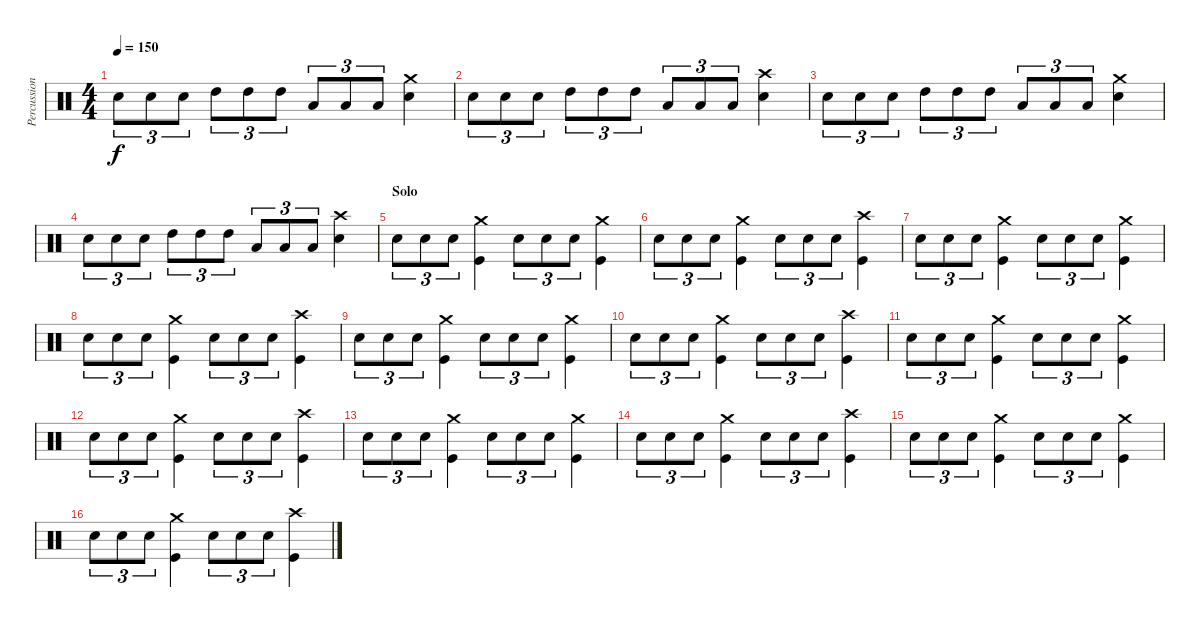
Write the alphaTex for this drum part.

\track ("Percussion" "Percussion") {instrument percussion}
\staff {score}
\articulation defaults
\ts (4 4)
\tempo 150
\clef neutral
\ks c "Snare (hit) 2".8{tu (3 2) dy f} "Snare (hit) 2".8{tu (3 2)} "Snare (hit) 2".8{tu (3 2)} "High Tom (hit)".8{tu (3 2)} "High Tom (hit)".8{tu (3 2)} "High Tom (hit)".8{tu (3 2)} "Low Floor Tom (hit)".8{tu (3 2)} "Low Floor Tom (hit)".8{tu (3 2)} "Low Floor Tom (hit)".8{tu (3 2)}
("Crash medium (hit)" "Snare (hit) 2").4 |
"Snare (hit) 2".8{tu (3 2)} "Snare (hit) 2".8{tu (3 2)} "Snare (hit) 2".8{tu (3 2)} "High Tom (hit)".8{tu (3 2)} "High Tom (hit)".8{tu (3 2)} "High Tom (hit)".8{tu (3 2)} "Low Floor Tom (hit)".8{tu (3 2)} "Low Floor Tom (hit)".8{tu (3 2)} "Low Floor Tom (hit)".8{tu (3 2)} ("Crash high (hit)" "Snare (hit) 2").4 |
"Snare (hit) 2".8{tu (3 2)} "Snare (hit) 2".8{tu (3 2)} "Snare (hit) 2".8{tu (3 2)} "High Tom (hit)".8{tu (3 2)} "High Tom (hit)".8{tu (3 2)} "High Tom (hit)".8{tu (3 2)} "Low Floor Tom (hit)".8{tu (3 2)} "Low Floor Tom (hit)".8{tu (3 2)} "Low Floor Tom (hit)".8{tu (3 2)} ("Crash medium (hit)" "Snare (hit) 2").4 |
"Snare (hit) 2".8{tu (3 2)} "Snare (hit) 2".8{tu (3 2)} "Snare (hit) 2".8{tu (3 2)} "High Tom (hit)".8{tu (3 2)} "High Tom (hit)".8{tu (3 2)} "High Tom (hit)".8{tu (3 2)} "Low Floor Tom (hit)".8{tu (3 2)} "Low Floor Tom (hit)".8{tu (3 2)} "Low Floor Tom (hit)".8{tu (3 2)} ("Crash high (hit)" "Snare (hit) 2").4 |
\section ("" "Solo")
"Snare (hit) 2".8{tu (3 2)} "Snare (hit) 2".8{tu (3 2)} "Snare (hit) 2".8{tu (3 2)} ("Crash medium (hit)" "Kick (hit)").4 "Snare (hit) 2".8{tu (3 2)} "Snare (hit) 2".8{tu (3 2)} "Snare (hit) 2".8{tu (3 2)} ("Crash medium (hit)" "Kick (hit)").4 |
"Snare (hit) 2".8{tu (3 2)} "Snare (hit) 2".8{tu (3 2)} "Snare (hit) 2".8{tu (3 2)} ("Crash medium (hit)" "Kick (hit)").4 "Snare (hit) 2".8{tu (3 2)} "Snare (hit) 2".8{tu (3 2)} "Snare (hit) 2".8{tu (3 2)} ("Crash high (hit)" "Kick (hit)").4 |
"Snare (hit) 2".8{tu (3 2)} "Snare (hit) 2".8{tu (3 2)} "Snare (hit) 2".8{tu (3 2)} ("Crash medium (hit)" "Kick (hit)").4 "Snare (hit) 2".8{tu (3 2)} "Snare (hit) 2".8{tu (3 2)} "Snare (hit) 2".8{tu (3 2)} ("Crash medium (hit)" "Kick (hit)").4 |
"Snare (hit) 2".8{tu (3 2)} "Snare (hit) 2".8{tu (3 2)} "Snare (hit) 2".8{tu (3 2)} ("Crash medium (hit)" "Kick (hit)").4 "Snare (hit) 2".8{tu (3 2)} "Snare (hit) 2".8{tu (3 2)} "Snare (hit) 2".8{tu (3 2)} ("Crash high (hit)" "Kick (hit)").4 |
"Snare (hit) 2".8{tu (3 2)} "Snare (hit) 2".8{tu (3 2)} "Snare (hit) 2".8{tu (3 2)} ("Crash medium (hit)" "Kick (hit)").4 "Snare (hit) 2".8{tu (3 2)} "Snare (hit) 2".8{tu (3 2)} "Snare (hit) 2".8{tu (3 2)} ("Crash medium (hit)" "Kick (hit)").4 |
"Snare (hit) 2".8{tu (3 2)} "Snare (hit) 2".8{tu (3 2)} "Snare (hit) 2".8{tu (3 2)} ("Crash medium (hit)" "Kick (hit)").4 "Snare (hit) 2".8{tu (3 2)} "Snare (hit) 2".8{tu (3 2)} "Snare (hit) 2".8{tu (3 2)} ("Crash high (hit)" "Kick (hit)").4 |
"Snare (hit) 2".8{tu (3 2)} "Snare (hit) 2".8{tu (3 2)} "Snare (hit) 2".8{tu (3 2)} ("Crash medium (hit)" "Kick (hit)").4 "Snare (hit) 2".8{tu (3 2)} "Snare (hit) 2".8{tu (3 2)} "Snare (hit) 2".8{tu (3 2)} ("Crash medium (hit)" "Kick (hit)").4 |
"Snare (hit) 2".8{tu (3 2)} "Snare (hit) 2".8{tu (3 2)} "Snare (hit) 2".8{tu (3 2)} ("Crash medium (hit)" "Kick (hit)").4 "Snare (hit) 2".8{tu (3 2)} "Snare (hit) 2".8{tu (3 2)} "Snare (hit) 2".8{tu (3 2)} ("Crash high (hit)" "Kick (hit)").4 |
"Snare (hit) 2".8{tu (3 2)} "Snare (hit) 2".8{tu (3 2)} "Snare (hit) 2".8{tu (3 2)} ("Crash medium (hit)" "Kick (hit)").4 "Snare (hit) 2".8{tu (3 2)} "Snare (hit) 2".8{tu (3 2)} "Snare (hit) 2".8{tu (3 2)} ("Crash medium (hit)" "Kick (hit)").4 |
"Snare (hit) 2".8{tu (3 2)} "Snare (hit) 2".8{tu (3 2)} "Snare (hit) 2".8{tu (3 2)} ("Crash medium (hit)" "Kick (hit)").4 "Snare (hit) 2".8{tu (3 2)} "Snare (hit) 2".8{tu (3 2)} "Snare (hit) 2".8{tu (3 2)} ("Crash high (hit)" "Kick (hit)").4 |
"Snare (hit) 2".8{tu (3 2)} "Snare (hit) 2".8{tu (3 2)} "Snare (hit) 2".8{tu (3 2)} ("Crash medium (hit)" "Kick (hit)").4 "Snare (hit) 2".8{tu (3 2)} "Snare (hit) 2".8{tu (3 2)} "Snare (hit) 2".8{tu (3 2)} ("Crash medium (hit)" "Kick (hit)").4 |
"Snare (hit) 2".8{tu (3 2)} "Snare (hit) 2".8{tu (3 2)} "Snare (hit) 2".8{tu (3 2)} ("Crash medium (hit)" "Kick (hit)").4 "Snare (hit) 2".8{tu (3 2)} "Snare (hit) 2".8{tu (3 2)} "Snare (hit) 2".8{tu (3 2)} ("Crash high (hit)" "Kick (hit)").4
